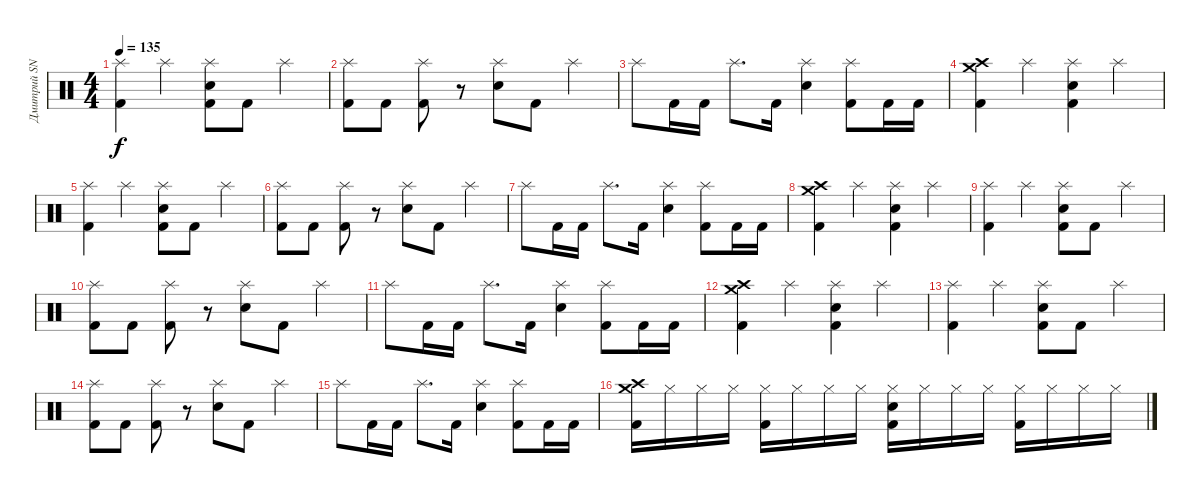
\track ("Дмитрий SNAKE Хакимов" "Дмитрий SN") {instrument percussion}
\staff {score}
\articulation defaults
\ts (4 4)
\tempo 135
\clef neutral
\ks c
("Splash (hit)" "Kick (hit) 2").4{dy f} "Splash (hit)".4 ("Splash (hit)" "Snare (hit) 2" "Kick (hit) 2").8 "Kick (hit) 2".8 "Splash (hit)".4 |
("Splash (hit)" "Kick (hit) 2").8 "Kick (hit) 2".8 ("Splash (hit)" "Kick (hit) 2").8 r.8 ("Splash (hit)" "Snare (hit) 2").8 "Kick (hit) 2".8 "Splash (hit)".4 |
"Splash (hit)".8 "Kick (hit) 2".16 "Kick (hit) 2".16 "Splash (hit)".8{d} "Kick (hit) 2".16 ("Splash (hit)" "Snare (hit) 2").4 ("Splash (hit)" "Kick (hit) 2").8 "Kick (hit) 2".16 "Kick (hit) 2".16 |
("Crash high (hit)" "Crash medium (hit)" "Kick (hit) 2").4 "Splash (hit)".4 ("Splash (hit)" "Snare (hit) 2" "Kick (hit) 2").4 "Splash (hit)".4 |
("Splash (hit)" "Kick (hit) 2").4 "Splash (hit)".4 ("Splash (hit)" "Snare (hit) 2" "Kick (hit) 2").8 "Kick (hit) 2".8 "Splash (hit)".4 |
("Splash (hit)" "Kick (hit) 2").8 "Kick (hit) 2".8 ("Splash (hit)" "Kick (hit) 2").8 r.8 ("Splash (hit)" "Snare (hit) 2").8 "Kick (hit) 2".8 "Splash (hit)".4 |
"Splash (hit)".8 "Kick (hit) 2".16 "Kick (hit) 2".16 "Splash (hit)".8{d} "Kick (hit) 2".16 ("Splash (hit)" "Snare (hit) 2").4 ("Splash (hit)" "Kick (hit) 2").8 "Kick (hit) 2".16 "Kick (hit) 2".16 |
("Crash high (hit)" "Crash medium (hit)" "Kick (hit) 2").4 "Splash (hit)".4 ("Splash (hit)" "Snare (hit) 2" "Kick (hit) 2").4 "Splash (hit)".4 |
("Splash (hit)" "Kick (hit) 2").4 "Splash (hit)".4 ("Splash (hit)" "Snare (hit) 2" "Kick (hit) 2").8 "Kick (hit) 2".8 "Splash (hit)".4 |
("Splash (hit)" "Kick (hit) 2").8 "Kick (hit) 2".8 ("Splash (hit)" "Kick (hit) 2").8 r.8 ("Splash (hit)" "Snare (hit) 2").8 "Kick (hit) 2".8 "Splash (hit)".4 |
"Splash (hit)".8 "Kick (hit) 2".16 "Kick (hit) 2".16 "Splash (hit)".8{d} "Kick (hit) 2".16 ("Splash (hit)" "Snare (hit) 2").4 ("Splash (hit)" "Kick (hit) 2").8 "Kick (hit) 2".16 "Kick (hit) 2".16 |
("Crash high (hit)" "Crash medium (hit)" "Kick (hit) 2").4 "Splash (hit)".4 ("Splash (hit)" "Snare (hit) 2" "Kick (hit) 2").4 "Splash (hit)".4 |
("Splash (hit)" "Kick (hit) 2").4 "Splash (hit)".4 ("Splash (hit)" "Snare (hit) 2" "Kick (hit) 2").8 "Kick (hit) 2".8 "Splash (hit)".4 |
("Splash (hit)" "Kick (hit) 2").8 "Kick (hit) 2".8 ("Splash (hit)" "Kick (hit) 2").8 r.8 ("Splash (hit)" "Snare (hit) 2").8 "Kick (hit) 2".8 "Splash (hit)".4 |
"Splash (hit)".8 "Kick (hit) 2".16 "Kick (hit) 2".16 "Splash (hit)".8{d} "Kick (hit) 2".16 ("Splash (hit)" "Snare (hit) 2").4 ("Splash (hit)" "Kick (hit) 2").8 "Kick (hit) 2".16 "Kick (hit) 2".16 |
("Crash high (hit)" "Crash medium (hit)" "Kick (hit) 2").16 "Hi-Hat (closed)".16 "Hi-Hat (closed)".16 "Hi-Hat (closed)".16 ("Hi-Hat (closed)" "Kick (hit) 2").16 "Hi-Hat (closed)".16 "Hi-Hat (closed)".16 "Hi-Hat (closed)".16 ("Hi-Hat (closed)" "Snare (hit) 2" "Kick (hit) 2").16 "Hi-Hat (closed)".16 "Hi-Hat (closed)".16 "Hi-Hat (closed)".16 ("Hi-Hat (closed)" "Kick (hit) 2").16 "Hi-Hat (closed)".16 "Hi-Hat (closed)".16 "Hi-Hat (closed)".16
